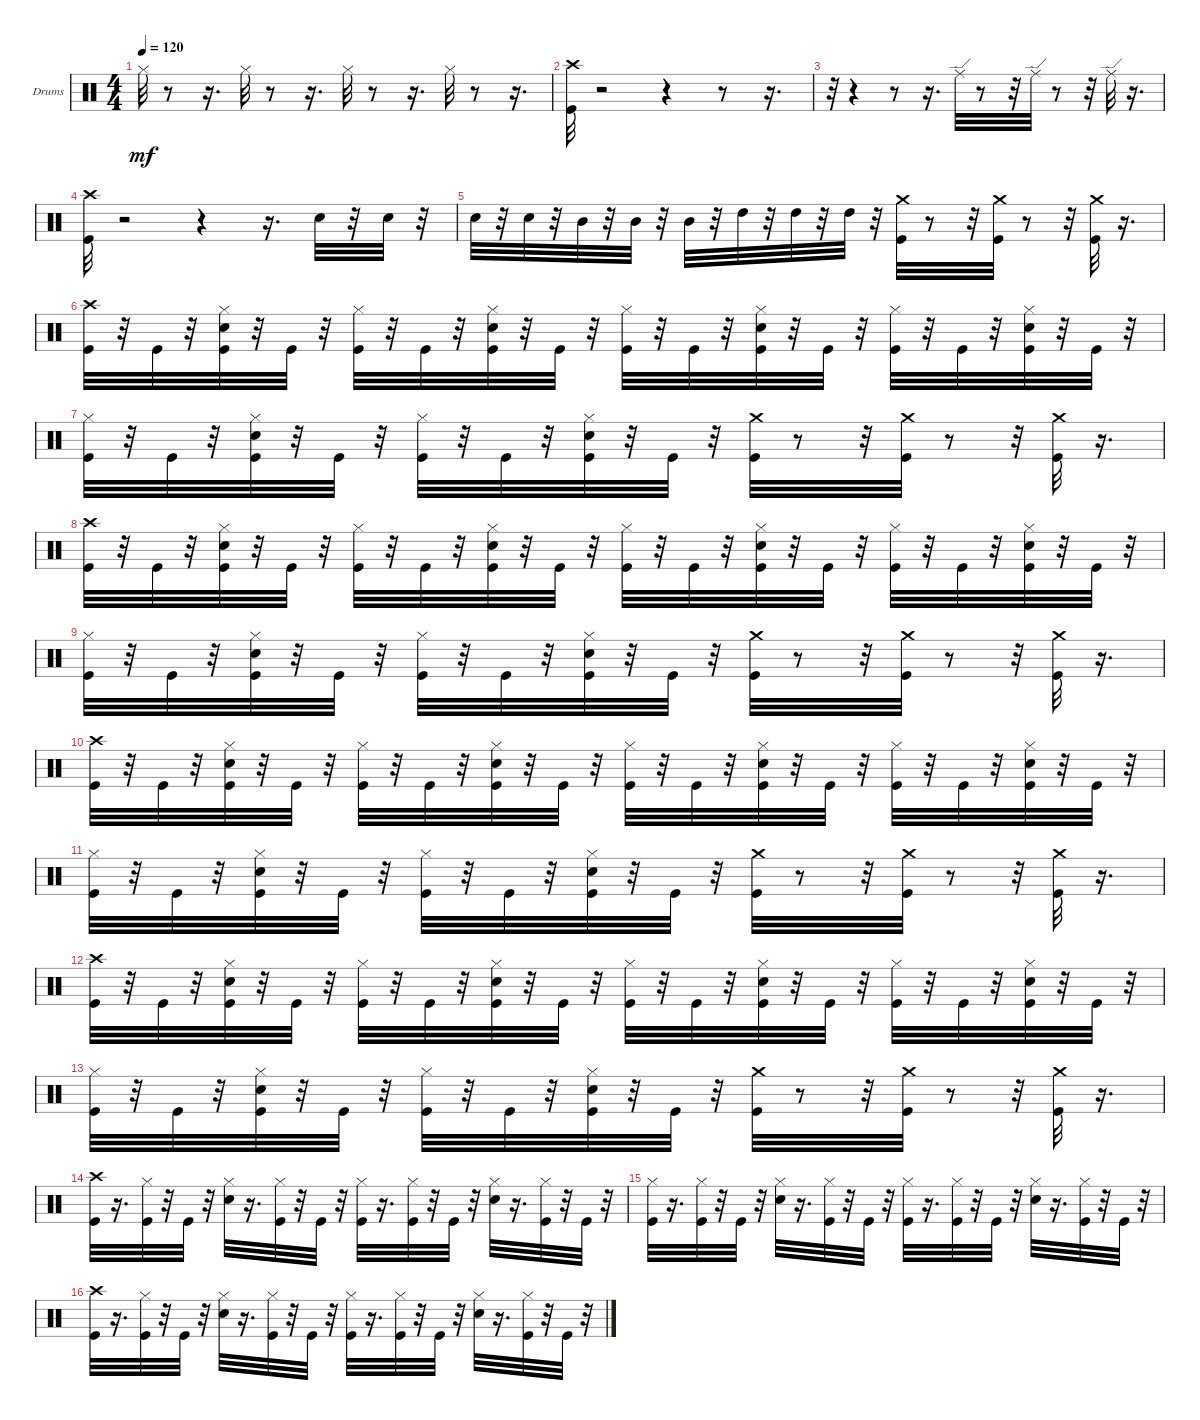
\bracketExtendMode groupsimilarinstruments
\firstSystemTrackNameOrientation horizontal
\otherSystemsTrackNameOrientation horizontal
\track ("" "Drums") {instrument percussion}
\staff {score}
\articulation defaults
\ts (4 4)
\tempo 120
\clef neutral
\ks c "Hi-Hat (closed)".32{dy mf}
r.8 r.16{d} "Hi-Hat (closed)".32 r.8 r.16{d} "Hi-Hat (closed)".32 r.8 r.16{d} "Hi-Hat (closed)".32 r.8 r.16{d} |
("Crash high (hit)" "Kick (hit)").32 r.2 r.4 r.8 r.16{d} |
r.32 r.4 r.8 r.16{d} "Ride (edge)".32 r.8 r.32 "Ride (edge)".32 r.8 r.32 "Ride (edge)".32 r.16{d} |
("Crash high (hit)" "Kick (hit)").32 r.2 r.4 r.16{d} "Snare (hit) 2".32 r.32 "Snare (hit) 2".32 r.32 |
"Snare (hit) 2".32 r.32 "Snare (hit) 2".32 r.32 "Mid Tom (hit)".32 r.32 "Mid Tom (hit)".32 r.32 "Mid Tom (hit)".32 r.32 "High Tom (hit)".32 r.32 "High Tom (hit)".32 r.32 "High Tom (hit)".32 r.32 ("Kick (hit)" "Crash medium (hit)").32 r.8 r.32 ("Kick (hit)" "Crash medium (hit)").32 r.8 r.32 ("Kick (hit)" "Crash medium (hit)").32 r.16{d} |
("Crash high (hit)" "Kick (hit)").32 r.32 "Kick (hit)".32 r.32 ("Kick (hit)" "Snare (hit) 2" "Hi-Hat (closed)").32 r.32 "Kick (hit)".32 r.32 ("Kick (hit)" "Hi-Hat (closed)").32 r.32 "Kick (hit)".32 r.32 ("Kick (hit)" "Snare (hit) 2" "Hi-Hat (closed)").32 r.32 "Kick (hit)".32 r.32 ("Kick (hit)" "Hi-Hat (closed)").32 r.32 "Kick (hit)".32 r.32 ("Kick (hit)" "Snare (hit) 2" "Hi-Hat (closed)").32 r.32 "Kick (hit)".32 r.32 ("Kick (hit)" "Hi-Hat (closed)").32 r.32 "Kick (hit)".32 r.32 ("Kick (hit)" "Snare (hit) 2" "Hi-Hat (closed)").32 r.32 "Kick (hit)".32 r.32 |
("Hi-Hat (closed)" "Kick (hit)").32 r.32 "Kick (hit)".32 r.32 ("Kick (hit)" "Snare (hit) 2" "Hi-Hat (closed)").32 r.32 "Kick (hit)".32 r.32 ("Kick (hit)" "Hi-Hat (closed)").32 r.32 "Kick (hit)".32 r.32 ("Kick (hit)" "Snare (hit) 2" "Hi-Hat (closed)").32 r.32 "Kick (hit)".32 r.32 ("Crash medium (hit)" "Kick (hit)").32 r.8 r.32 ("Crash medium (hit)" "Kick (hit)").32 r.8 r.32 ("Crash medium (hit)" "Kick (hit)").32 r.16{d} |
("Crash high (hit)" "Kick (hit)").32 r.32 "Kick (hit)".32 r.32 ("Kick (hit)" "Snare (hit) 2" "Hi-Hat (closed)").32 r.32 "Kick (hit)".32 r.32 ("Kick (hit)" "Hi-Hat (closed)").32 r.32 "Kick (hit)".32 r.32 ("Kick (hit)" "Snare (hit) 2" "Hi-Hat (closed)").32 r.32 "Kick (hit)".32 r.32 ("Kick (hit)" "Hi-Hat (closed)").32 r.32 "Kick (hit)".32 r.32 ("Kick (hit)" "Snare (hit) 2" "Hi-Hat (closed)").32 r.32 "Kick (hit)".32 r.32 ("Kick (hit)" "Hi-Hat (closed)").32 r.32 "Kick (hit)".32 r.32 ("Kick (hit)" "Snare (hit) 2" "Hi-Hat (closed)").32 r.32 "Kick (hit)".32 r.32 |
("Hi-Hat (closed)" "Kick (hit)").32 r.32 "Kick (hit)".32 r.32 ("Kick (hit)" "Snare (hit) 2" "Hi-Hat (closed)").32 r.32 "Kick (hit)".32 r.32 ("Kick (hit)" "Hi-Hat (closed)").32 r.32 "Kick (hit)".32 r.32 ("Kick (hit)" "Snare (hit) 2" "Hi-Hat (closed)").32 r.32 "Kick (hit)".32 r.32 ("Crash medium (hit)" "Kick (hit)").32 r.8 r.32 ("Crash medium (hit)" "Kick (hit)").32 r.8 r.32 ("Crash medium (hit)" "Kick (hit)").32 r.16{d} |
("Crash high (hit)" "Kick (hit)").32 r.32 "Kick (hit)".32 r.32 ("Kick (hit)" "Snare (hit) 2" "Hi-Hat (closed)").32 r.32 "Kick (hit)".32 r.32 ("Kick (hit)" "Hi-Hat (closed)").32 r.32 "Kick (hit)".32 r.32 ("Kick (hit)" "Snare (hit) 2" "Hi-Hat (closed)").32 r.32 "Kick (hit)".32 r.32 ("Kick (hit)" "Hi-Hat (closed)").32 r.32 "Kick (hit)".32 r.32 ("Kick (hit)" "Snare (hit) 2" "Hi-Hat (closed)").32 r.32 "Kick (hit)".32 r.32 ("Kick (hit)" "Hi-Hat (closed)").32 r.32 "Kick (hit)".32 r.32 ("Kick (hit)" "Snare (hit) 2" "Hi-Hat (closed)").32 r.32 "Kick (hit)".32 r.32 |
("Hi-Hat (closed)" "Kick (hit)").32 r.32 "Kick (hit)".32 r.32 ("Kick (hit)" "Snare (hit) 2" "Hi-Hat (closed)").32 r.32 "Kick (hit)".32 r.32 ("Kick (hit)" "Hi-Hat (closed)").32 r.32 "Kick (hit)".32 r.32 ("Kick (hit)" "Snare (hit) 2" "Hi-Hat (closed)").32 r.32 "Kick (hit)".32 r.32 ("Crash medium (hit)" "Kick (hit)").32 r.8 r.32 ("Crash medium (hit)" "Kick (hit)").32 r.8 r.32 ("Crash medium (hit)" "Kick (hit)").32 r.16{d} |
("Crash high (hit)" "Kick (hit)").32 r.32 "Kick (hit)".32 r.32 ("Kick (hit)" "Snare (hit) 2" "Hi-Hat (closed)").32 r.32 "Kick (hit)".32 r.32 ("Kick (hit)" "Hi-Hat (closed)").32 r.32 "Kick (hit)".32 r.32 ("Kick (hit)" "Snare (hit) 2" "Hi-Hat (closed)").32 r.32 "Kick (hit)".32 r.32 ("Kick (hit)" "Hi-Hat (closed)").32 r.32 "Kick (hit)".32 r.32 ("Kick (hit)" "Snare (hit) 2" "Hi-Hat (closed)").32 r.32 "Kick (hit)".32 r.32 ("Kick (hit)" "Hi-Hat (closed)").32 r.32 "Kick (hit)".32 r.32 ("Kick (hit)" "Snare (hit) 2" "Hi-Hat (closed)").32 r.32 "Kick (hit)".32 r.32 |
("Hi-Hat (closed)" "Kick (hit)").32 r.32 "Kick (hit)".32 r.32 ("Kick (hit)" "Snare (hit) 2" "Hi-Hat (closed)").32 r.32 "Kick (hit)".32 r.32 ("Kick (hit)" "Hi-Hat (closed)").32 r.32 "Kick (hit)".32 r.32 ("Kick (hit)" "Snare (hit) 2" "Hi-Hat (closed)").32 r.32 "Kick (hit)".32 r.32 ("Crash medium (hit)" "Kick (hit)").32 r.8 r.32 ("Crash medium (hit)" "Kick (hit)").32 r.8 r.32 ("Crash medium (hit)" "Kick (hit)").32 r.16{d} |
("Crash high (hit)" "Kick (hit)").32 r.16{d} ("Hi-Hat (closed)" "Kick (hit)").32 r.32 "Kick (hit)".32 r.32 ("Hi-Hat (closed)" "Snare (hit) 2").32 r.16{d} ("Hi-Hat (closed)" "Kick (hit)").32 r.32 "Kick (hit)".32 r.32 ("Hi-Hat (closed)" "Kick (hit)").32 r.16{d} ("Hi-Hat (closed)" "Kick (hit)").32 r.32 "Kick (hit)".32 r.32 ("Hi-Hat (closed)" "Snare (hit) 2").32 r.16{d} ("Hi-Hat (closed)" "Kick (hit)").32 r.32 "Kick (hit)".32 r.32 |
("Hi-Hat (closed)" "Kick (hit)").32 r.16{d} ("Hi-Hat (closed)" "Kick (hit)").32 r.32 "Kick (hit)".32 r.32 ("Hi-Hat (closed)" "Snare (hit) 2").32 r.16{d} ("Hi-Hat (closed)" "Kick (hit)").32 r.32 "Kick (hit)".32 r.32 ("Hi-Hat (closed)" "Kick (hit)").32 r.16{d} ("Hi-Hat (closed)" "Kick (hit)").32 r.32 "Kick (hit)".32 r.32 ("Hi-Hat (closed)" "Snare (hit) 2").32 r.16{d} ("Hi-Hat (closed)" "Kick (hit)").32 r.32 "Kick (hit)".32 r.32 |
("Crash high (hit)" "Kick (hit)").32 r.16{d} ("Hi-Hat (closed)" "Kick (hit)").32 r.32 "Kick (hit)".32 r.32 ("Hi-Hat (closed)" "Snare (hit) 2").32 r.16{d} ("Hi-Hat (closed)" "Kick (hit)").32 r.32 "Kick (hit)".32 r.32 ("Hi-Hat (closed)" "Kick (hit)").32 r.16{d} ("Hi-Hat (closed)" "Kick (hit)").32 r.32 "Kick (hit)".32 r.32 ("Hi-Hat (closed)" "Snare (hit) 2").32 r.16{d} ("Hi-Hat (closed)" "Kick (hit)").32 r.32 "Kick (hit)".32 r.32
